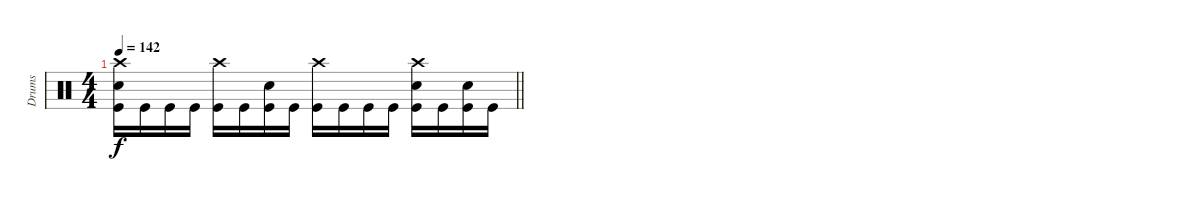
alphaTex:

\track ("Drums" "Drums") {instrument percussion}
\staff
\articulation defaults
\ts (4 4)
\tempo 142
\clef neutral
\barLineRight lightlight
\ks c
("Crash high (hit)" "Electric Snare (hit)" "Kick (hit)").16{dy f} "Kick (hit)".16 "Kick (hit)".16 "Kick (hit)".16 ("Crash high (hit)" "Kick (hit)").16 "Kick (hit)".16 ("Electric Snare (hit)" "Kick (hit)").16 "Kick (hit)".16 ("Crash high (hit)" "Kick (hit)").16 "Kick (hit)".16 "Kick (hit)".16 "Kick (hit)".16 ("Crash high (hit)" "Electric Snare (hit)" "Kick (hit)").16 "Kick (hit)".16 ("Electric Snare (hit)" "Kick (hit)").16 "Kick (hit)".16
